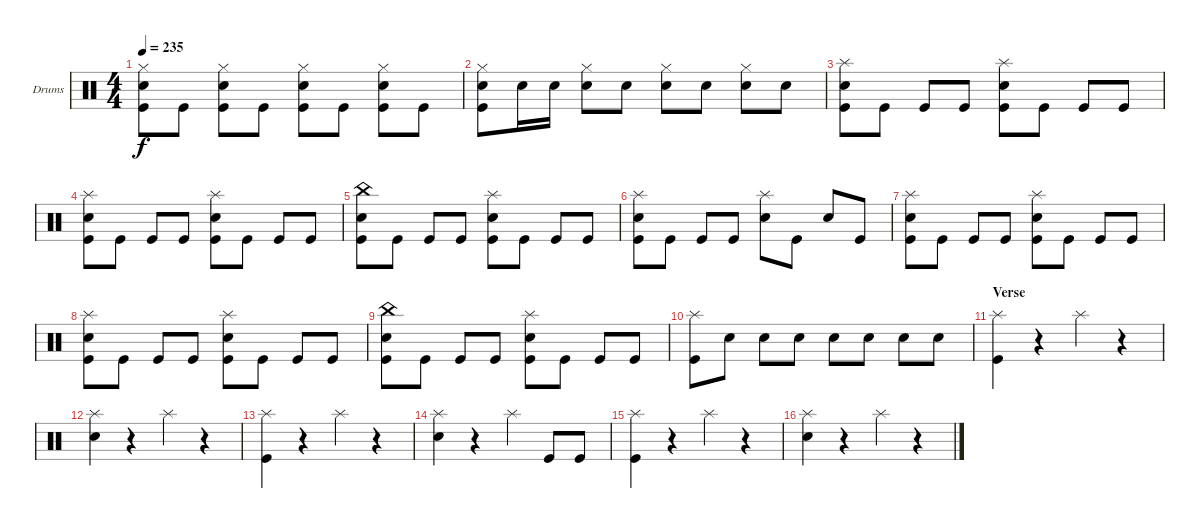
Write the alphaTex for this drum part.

\defaultSystemsLayout 4
\bracketExtendMode groupsimilarinstruments
\firstSystemTrackNameOrientation horizontal
\otherSystemsTrackNameOrientation horizontal
\track ("Drumkit" "Drums") {instrument percussion}
\staff {score}
\articulation defaults
\ts (4 4)
\tempo 235
\clef neutral
\ks c
("Kick (hit)" "Snare (hit) 2" "Hi-Hat (closed)").8{dy f} "Kick (hit)".8 ("Kick (hit)" "Snare (hit) 2" "Hi-Hat (closed)").8 "Kick (hit)".8 ("Kick (hit)" "Snare (hit) 2" "Hi-Hat (closed)").8 "Kick (hit)".8 ("Kick (hit)" "Snare (hit) 2" "Hi-Hat (closed)").8 "Kick (hit)".8 |
("Kick (hit)" "Snare (hit) 2" "Hi-Hat (closed)").8 "Snare (hit) 2".16 "Snare (hit) 2".16 ("Snare (hit) 2" "Hi-Hat (closed)").8 "Snare (hit) 2".8 ("Snare (hit) 2" "Hi-Hat (closed)").8 "Snare (hit) 2".8 ("Snare (hit) 2" "Hi-Hat (closed)").8 "Snare (hit) 2".8 |
("Kick (hit)" "Splash (hit)" "Snare (hit) 2").8 "Kick (hit)".8 "Kick (hit)".8 "Kick (hit)".8 ("Kick (hit)" "Splash (hit)" "Snare (hit) 2").8 "Kick (hit)".8 "Kick (hit)".8 "Kick (hit)".8 |
("Kick (hit)" "Splash (hit)" "Snare (hit) 2").8 "Kick (hit)".8 "Kick (hit)".8 "Kick (hit)".8 ("Kick (hit)" "Splash (hit)" "Snare (hit) 2").8 "Kick (hit)".8 "Kick (hit)".8 "Kick (hit)".8 |
("Kick (hit)" "Snare (hit) 2" "China (hit)").8 "Kick (hit)".8 "Kick (hit)".8 "Kick (hit)".8 ("Kick (hit)" "Splash (hit)" "Snare (hit) 2").8 "Kick (hit)".8 "Kick (hit)".8 "Kick (hit)".8 |
("Kick (hit)" "Splash (hit)" "Snare (hit) 2").8 "Kick (hit)".8 "Kick (hit)".8 "Kick (hit)".8 ("Splash (hit)" "Snare (hit) 2").8 "Kick (hit)".8 "Snare (hit) 2".8 "Kick (hit)".8 |
("Kick (hit)" "Splash (hit)" "Snare (hit) 2").8 "Kick (hit)".8 "Kick (hit)".8 "Kick (hit)".8 ("Kick (hit)" "Splash (hit)" "Snare (hit) 2").8 "Kick (hit)".8 "Kick (hit)".8 "Kick (hit)".8 |
("Kick (hit)" "Splash (hit)" "Snare (hit) 2").8 "Kick (hit)".8 "Kick (hit)".8 "Kick (hit)".8 ("Kick (hit)" "Splash (hit)" "Snare (hit) 2").8 "Kick (hit)".8 "Kick (hit)".8 "Kick (hit)".8 |
("Kick (hit)" "Snare (hit) 2" "China (hit)").8 "Kick (hit)".8 "Kick (hit)".8 "Kick (hit)".8 ("Kick (hit)" "Splash (hit)" "Snare (hit) 2").8 "Kick (hit)".8 "Kick (hit)".8 "Kick (hit)".8 |
("Kick (hit)" "Splash (hit)").8 "Snare (hit) 2".8 "Snare (hit) 2".8 "Snare (hit) 2".8 "Snare (hit) 2".8 "Snare (hit) 2".8 "Snare (hit) 2".8 "Snare (hit) 2".8 |
\section ("" "Verse")
("Kick (hit)" "Splash (hit)").4 r.4 "Splash (hit)".4 r.4 |
("Splash (hit)" "Snare (hit) 2").4 r.4 "Splash (hit)".4 r.4 |
("Kick (hit)" "Splash (hit)").4 r.4 "Splash (hit)".4 r.4 |
("Splash (hit)" "Snare (hit) 2").4 r.4 "Splash (hit)".4 "Kick (hit)".8 "Kick (hit)".8 |
("Kick (hit)" "Splash (hit)").4 r.4 "Splash (hit)".4 r.4 |
("Splash (hit)" "Snare (hit) 2").4 r.4 "Splash (hit)".4 r.4
